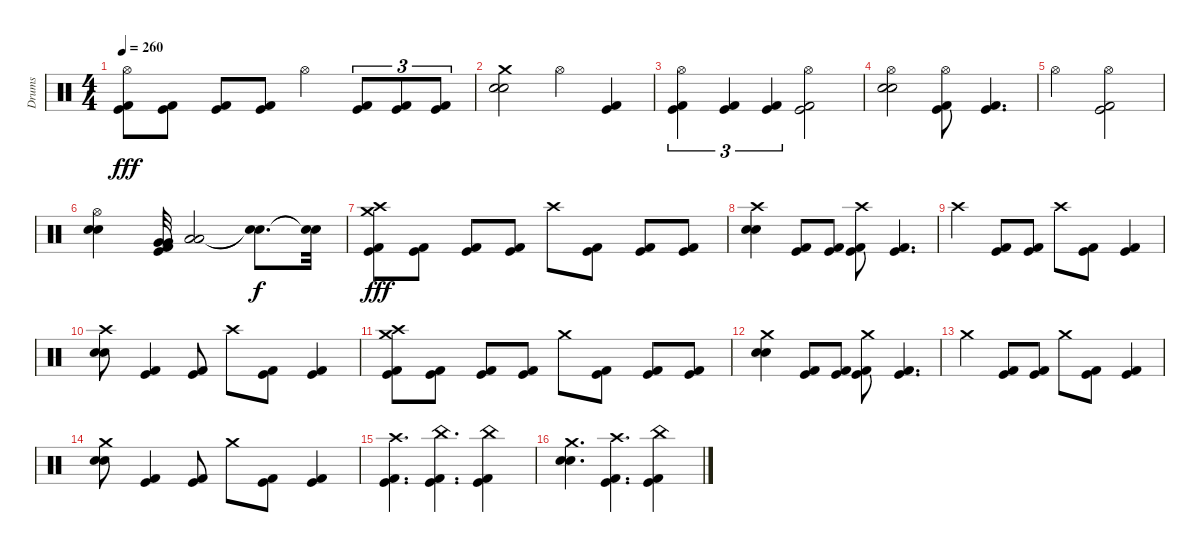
\track ("Drums" "Drums") {instrument percussion}
\staff {score}
\articulation defaults
\ts (4 4)
\tempo 260
\clef neutral
\ks c
("Kick (hit)" "Kick (hit) 2" "Hi-Hat (open)").8{dy fff} ("Kick (hit)" "Kick (hit) 2").8 ("Kick (hit)" "Kick (hit) 2").8 ("Kick (hit)" "Kick (hit) 2").8 "Hi-Hat (open)".4 ("Kick (hit)" "Kick (hit) 2").8{tu (3 2)} ("Kick (hit)" "Kick (hit) 2").8{tu (3 2)} ("Kick (hit)" "Kick (hit) 2").8{tu (3 2)} |
("Electric Snare (hit)" "Electric Snare (hit)" "Crash medium (hit)").2 "Hi-Hat (open)".4 ("Kick (hit)" "Kick (hit) 2").4 |
("Kick (hit)" "Kick (hit) 2" "Hi-Hat (open)").4{tu (3 2)} ("Kick (hit)" "Kick (hit) 2").4{tu (3 2)} ("Kick (hit)" "Kick (hit) 2").4{tu (3 2)} ("Kick (hit)" "Kick (hit) 2" "Hi-Hat (open)").2 |
("Electric Snare (hit)" "Electric Snare (hit)" "Hi-Hat (open)").2 ("Kick (hit)" "Kick (hit) 2" "Hi-Hat (open)").8 ("Kick (hit)" "Kick (hit) 2").4{d} |
"Hi-Hat (open)".2 ("Kick (hit)" "Kick (hit) 2" "Hi-Hat (open)").2 |
("Electric Snare (hit)" "Electric Snare (hit)" "Hi-Hat (open)").4 ("Kick (hit)" "Kick (hit) 2" "Very Low Tom (hit)" "Very Low Tom (hit)").32 ("Low Floor Tom (hit)" "Low Floor Tom (hit)").2 ("Snare (hit)"{t} "Snare (hit)"{t}).8{d dy f} ("Snare (hit)"{t} "Snare (hit)"{t}).32 |
("Kick (hit)" "Kick (hit) 2" "Crash medium (hit)" "Crash high (hit)").8{dy fff} ("Kick (hit)" "Kick (hit) 2").8 ("Kick (hit)" "Kick (hit) 2").8 ("Kick (hit)" "Kick (hit) 2").8 "Crash high (hit)".8 ("Kick (hit)" "Kick (hit) 2").8 ("Kick (hit)" "Kick (hit) 2").8 ("Kick (hit)" "Kick (hit) 2").8 |
("Electric Snare (hit)" "Electric Snare (hit)" "Crash high (hit)").4 ("Kick (hit)" "Kick (hit) 2").8 ("Kick (hit)" "Kick (hit) 2").8 ("Kick (hit)" "Kick (hit) 2" "Crash high (hit)").8 ("Kick (hit)" "Kick (hit) 2").4{d} |
"Crash high (hit)".4 ("Kick (hit)" "Kick (hit) 2").8 ("Kick (hit)" "Kick (hit) 2").8 "Crash high (hit)".8 ("Kick (hit)" "Kick (hit) 2").8 ("Kick (hit)" "Kick (hit) 2").4 |
("Electric Snare (hit)" "Electric Snare (hit)" "Crash high (hit)").8 ("Kick (hit)" "Kick (hit) 2").4 ("Kick (hit)" "Kick (hit) 2").8 "Crash high (hit)".8 ("Kick (hit)" "Kick (hit) 2").8 ("Kick (hit)" "Kick (hit) 2").4 |
("Kick (hit)" "Kick (hit) 2" "Crash medium (hit)" "Crash high (hit)").8 ("Kick (hit)" "Kick (hit) 2").8 ("Kick (hit)" "Kick (hit) 2").8 ("Kick (hit)" "Kick (hit) 2").8 "Crash medium (hit)".8 ("Kick (hit)" "Kick (hit) 2").8 ("Kick (hit)" "Kick (hit) 2").8 ("Kick (hit)" "Kick (hit) 2").8 |
("Electric Snare (hit)" "Electric Snare (hit)" "Crash medium (hit)").4 ("Kick (hit)" "Kick (hit) 2").8 ("Kick (hit)" "Kick (hit) 2").8 ("Kick (hit)" "Kick (hit) 2" "Crash medium (hit)").8 ("Kick (hit)" "Kick (hit) 2").4{d} |
"Crash medium (hit)".4 ("Kick (hit)" "Kick (hit) 2").8 ("Kick (hit)" "Kick (hit) 2").8 "Crash medium (hit)".8 ("Kick (hit)" "Kick (hit) 2").8 ("Kick (hit)" "Kick (hit) 2").4 |
("Electric Snare (hit)" "Electric Snare (hit)" "Crash medium (hit)").8 ("Kick (hit)" "Kick (hit) 2").4 ("Kick (hit)" "Kick (hit) 2").8 "Crash medium (hit)".8 ("Kick (hit)" "Kick (hit) 2").8 ("Kick (hit)" "Kick (hit) 2").4 |
("Kick (hit)" "Kick (hit) 2" "Crash high (hit)").4{d} ("Kick (hit)" "Kick (hit) 2" "China (hit)").4{d} ("Kick (hit)" "Kick (hit) 2" "China (hit)").4 |
("Electric Snare (hit)" "Electric Snare (hit)" "Crash medium (hit)").4{d} ("Kick (hit)" "Kick (hit) 2" "Crash high (hit)").4{d} ("Kick (hit)" "Kick (hit) 2" "China (hit)").4
